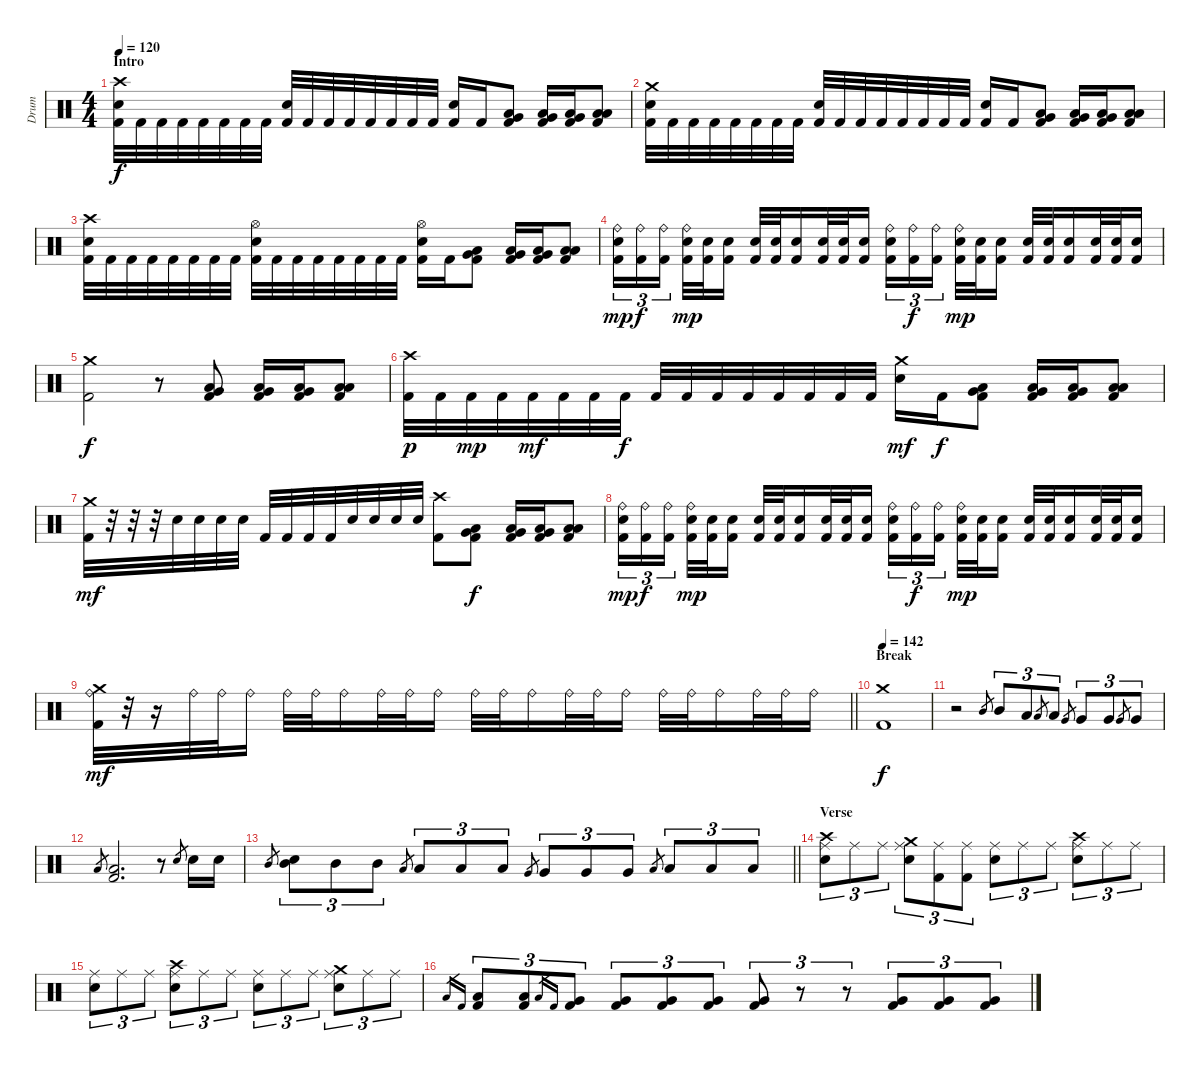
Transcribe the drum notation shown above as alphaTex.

\track ("Drum" "Drum") {instrument percussion}
\staff {score}
\articulation defaults
\ts (4 4)
\section ("" "Intro")
\tempo 120
\clef neutral
\ks c
("Crash high (hit)" "Electric Snare (hit)" "Kick (hit) 2").32{dy f} "Kick (hit) 2".32 "Kick (hit) 2".32 "Kick (hit) 2".32 "Kick (hit) 2".32 "Kick (hit) 2".32 "Kick (hit) 2".32 "Kick (hit) 2".32 ("Electric Snare (hit)" "Kick (hit) 2").32 "Kick (hit) 2".32 "Kick (hit) 2".32 "Kick (hit) 2".32 "Kick (hit) 2".32 "Kick (hit) 2".32 "Kick (hit) 2".32 "Kick (hit) 2".32 ("Electric Snare (hit)" "Kick (hit) 2").16 "Kick (hit) 2".16 ("Very Low Tom (hit)" "Low Floor Tom (hit)" "Kick (hit) 2").8 ("Very Low Tom (hit)" "Low Floor Tom (hit)" "Kick (hit) 2").16 ("Very Low Tom (hit)" "Low Floor Tom (hit)" "Kick (hit) 2").16 ("Low Tom (hit)" "Low Floor Tom (hit)" "Kick (hit) 2").8 |
("Crash medium (hit)" "Electric Snare (hit)" "Kick (hit) 2").32 "Kick (hit) 2".32 "Kick (hit) 2".32 "Kick (hit) 2".32 "Kick (hit) 2".32 "Kick (hit) 2".32 "Kick (hit) 2".32 "Kick (hit) 2".32 ("Electric Snare (hit)" "Kick (hit) 2").32 "Kick (hit) 2".32 "Kick (hit) 2".32 "Kick (hit) 2".32 "Kick (hit) 2".32 "Kick (hit) 2".32 "Kick (hit) 2".32 "Kick (hit) 2".32 ("Electric Snare (hit)" "Kick (hit) 2").16 "Kick (hit) 2".16 ("Very Low Tom (hit)" "Low Floor Tom (hit)" "Kick (hit) 2").8 ("Very Low Tom (hit)" "Low Floor Tom (hit)" "Kick (hit) 2").16 ("Very Low Tom (hit)" "Low Floor Tom (hit)" "Kick (hit) 2").16 ("Low Tom (hit)" "Low Floor Tom (hit)" "Kick (hit) 2").8 |
("Crash high (hit)" "Electric Snare (hit)" "Kick (hit) 2").32 "Kick (hit) 2".32 "Kick (hit) 2".32 "Kick (hit) 2".32 "Kick (hit) 2".32 "Kick (hit) 2".32 "Kick (hit) 2".32 "Kick (hit) 2".32 ("Hi-Hat (open)" "Electric Snare (hit)" "Kick (hit) 2").32 "Kick (hit) 2".32 "Kick (hit) 2".32 "Kick (hit) 2".32 "Kick (hit) 2".32 "Kick (hit) 2".32 "Kick (hit) 2".32 "Kick (hit) 2".32 ("Hi-Hat (open)" "Electric Snare (hit)" "Kick (hit) 2").16 "Kick (hit) 2".16 ("Very Low Tom (hit)" "Low Floor Tom (hit)" "Kick (hit) 2").8 ("Very Low Tom (hit)" "Low Floor Tom (hit)" "Kick (hit) 2").16 ("Very Low Tom (hit)" "Low Floor Tom (hit)" "Kick (hit) 2").16 ("Low Tom (hit)" "Low Floor Tom (hit)" "Kick (hit) 2").8 |
("Ride (bell)" "Electric Snare (hit)" "Kick (hit) 2").16{tu (3 2) dy mp} ("Ride (bell)" "Kick (hit) 2").16{tu (3 2) dy f} ("Ride (bell)" "Kick (hit) 2").16{tu (3 2) beam splitsecondary} ("Ride (bell)" "Electric Snare (hit)" "Kick (hit) 2").32{dy mp} ("Electric Snare (hit)" "Kick (hit) 2").32 ("Electric Snare (hit)" "Kick (hit) 2").16 ("Electric Snare (hit)" "Kick (hit) 2").32 ("Electric Snare (hit)" "Kick (hit) 2").32 ("Electric Snare (hit)" "Kick (hit) 2").16 ("Electric Snare (hit)" "Kick (hit) 2").32 ("Electric Snare (hit)" "Kick (hit) 2").32 ("Electric Snare (hit)" "Kick (hit) 2").16 ("Ride (bell)" "Electric Snare (hit)" "Kick (hit) 2").16{tu (3 2)} ("Ride (bell)" "Kick (hit) 2").16{tu (3 2) dy f} ("Ride (bell)" "Kick (hit) 2").16{tu (3 2) beam splitsecondary} ("Ride (bell)" "Electric Snare (hit)" "Kick (hit) 2").32{dy mp} ("Electric Snare (hit)" "Kick (hit) 2").32 ("Electric Snare (hit)" "Kick (hit) 2").16 ("Electric Snare (hit)" "Kick (hit) 2").32 ("Electric Snare (hit)" "Kick (hit) 2").32 ("Electric Snare (hit)" "Kick (hit) 2").16 ("Electric Snare (hit)" "Kick (hit) 2").32 ("Electric Snare (hit)" "Kick (hit) 2").32 ("Electric Snare (hit)" "Kick (hit) 2").16 |
("Crash medium (hit)" "Kick (hit) 2").2{dy f} r.8 ("Very Low Tom (hit)" "Low Floor Tom (hit)" "Kick (hit) 2").8 ("Very Low Tom (hit)" "Low Floor Tom (hit)" "Kick (hit) 2").16 ("Very Low Tom (hit)" "Low Floor Tom (hit)" "Kick (hit) 2").16 ("Low Tom (hit)" "Low Floor Tom (hit)" "Kick (hit) 2").8 |
("Crash high (hit)" "Kick (hit) 2").32{dy p} "Kick (hit) 2".32 "Kick (hit) 2".32{dy mp} "Kick (hit) 2".32 "Kick (hit) 2".32{dy mf} "Kick (hit) 2".32 "Kick (hit) 2".32 "Kick (hit) 2".32{dy f} "Kick (hit) 2".32 "Kick (hit) 2".32 "Kick (hit) 2".32 "Kick (hit) 2".32 "Kick (hit) 2".32 "Kick (hit) 2".32 "Kick (hit) 2".32 "Kick (hit) 2".32 ("Crash medium (hit)" "Electric Snare (hit)").16{dy mf} "Kick (hit) 2".16{dy f} ("Very Low Tom (hit)" "Low Floor Tom (hit)" "Kick (hit) 2").8 ("Very Low Tom (hit)" "Low Floor Tom (hit)" "Kick (hit) 2").16 ("Very Low Tom (hit)" "Low Floor Tom (hit)" "Kick (hit) 2").16 ("Low Tom (hit)" "Low Floor Tom (hit)" "Kick (hit) 2").8 |
("Crash medium (hit)" "Kick (hit) 2").32{dy mf} r.32 r.32 r.32 "Electric Snare (hit)".32 "Electric Snare (hit)".32 "Electric Snare (hit)".32 "Electric Snare (hit)".32 "Kick (hit) 2".32 "Kick (hit) 2".32 "Kick (hit) 2".32 "Kick (hit) 2".32 "Electric Snare (hit)".32 "Electric Snare (hit)".32 "Electric Snare (hit)".32 "Electric Snare (hit)".32 ("Crash high (hit)" "Kick (hit) 2").8 ("Very Low Tom (hit)" "Low Floor Tom (hit)" "Kick (hit) 2").8{dy f} ("Very Low Tom (hit)" "Low Floor Tom (hit)" "Kick (hit) 2").16 ("Very Low Tom (hit)" "Low Floor Tom (hit)" "Kick (hit) 2").16 ("Low Tom (hit)" "Low Floor Tom (hit)" "Kick (hit) 2").8 |
("Ride (bell)" "Electric Snare (hit)" "Kick (hit) 2").16{tu (3 2) dy mp} ("Ride (bell)" "Kick (hit) 2").16{tu (3 2) dy f} ("Ride (bell)" "Kick (hit) 2").16{tu (3 2) beam splitsecondary} ("Ride (bell)" "Electric Snare (hit)" "Kick (hit) 2").32{dy mp} ("Electric Snare (hit)" "Kick (hit) 2").32 ("Electric Snare (hit)" "Kick (hit) 2").16 ("Electric Snare (hit)" "Kick (hit) 2").32 ("Electric Snare (hit)" "Kick (hit) 2").32 ("Electric Snare (hit)" "Kick (hit) 2").16 ("Electric Snare (hit)" "Kick (hit) 2").32 ("Electric Snare (hit)" "Kick (hit) 2").32 ("Electric Snare (hit)" "Kick (hit) 2").16 ("Ride (bell)" "Electric Snare (hit)" "Kick (hit) 2").16{tu (3 2)} ("Ride (bell)" "Kick (hit) 2").16{tu (3 2) dy f} ("Ride (bell)" "Kick (hit) 2").16{tu (3 2) beam splitsecondary} ("Ride (bell)" "Electric Snare (hit)" "Kick (hit) 2").32{dy mp} ("Electric Snare (hit)" "Kick (hit) 2").32 ("Electric Snare (hit)" "Kick (hit) 2").16 ("Electric Snare (hit)" "Kick (hit) 2").32 ("Electric Snare (hit)" "Kick (hit) 2").32 ("Electric Snare (hit)" "Kick (hit) 2").16 ("Electric Snare (hit)" "Kick (hit) 2").32 ("Electric Snare (hit)" "Kick (hit) 2").32 ("Electric Snare (hit)" "Kick (hit) 2").16 |
\barLineRight lightlight
("Crash medium (hit)" "Ride (bell)" "Kick (hit) 2").32{dy mf} r.32 r.16 "Ride (bell)".32 "Ride (bell)".32 "Ride (bell)".16 "Ride (bell)".32 "Ride (bell)".32 "Ride (bell)".16 "Ride (bell)".32 "Ride (bell)".32 "Ride (bell)".16 "Ride (bell)".32 "Ride (bell)".32 "Ride (bell)".16 "Ride (bell)".32 "Ride (bell)".32 "Ride (bell)".16 "Ride (bell)".32 "Ride (bell)".32 "Ride (bell)".16 "Ride (bell)".32 "Ride (bell)".32 "Ride (bell)".16 |
\section ("" "Break")
\tempo 142
("Crash medium (hit)" "Kick (hit) 2").1{dy f} |
r.2 "Mid Tom (hit)".8{gr} "Mid Tom (hit)".8{tu (3 2)} "Low Tom (hit)".8{tu (3 2)} "Low Tom (hit)".8{gr} "Low Tom (hit)".8{tu (3 2)} "Very Low Tom (hit)".8{gr} "Very Low Tom (hit)".8{tu (3 2)} "Very Low Tom (hit)".8{tu (3 2)} "Very Low Tom (hit)".8{gr} "Very Low Tom (hit)".8{tu (3 2)} |
"Low Floor Tom (hit)".8{gr} ("Low Floor Tom (hit)" "Kick (hit) 2").2{d} r.8 "Electric Snare (hit)".8{gr} "Electric Snare (hit)".16 "Electric Snare (hit)".16 |
\barLineRight lightlight "Mid Tom (hit)".8{gr}
("Mid Tom (hit)" "Electric Snare (hit)").8{tu (3 2)} "Mid Tom (hit)".8{tu (3 2)} "Mid Tom (hit)".8{tu (3 2)} "Low Tom (hit)".8{gr} "Low Tom (hit)".8{tu (3 2)} "Low Tom (hit)".8{tu (3 2)} "Low Tom (hit)".8{tu (3 2)} "Very Low Tom (hit)".8{gr} "Very Low Tom (hit)".8{tu (3 2)} "Very Low Tom (hit)".8{tu (3 2)} "Very Low Tom (hit)".8{tu (3 2)} "Low Floor Tom (hit)".8{gr} "Low Floor Tom (hit)".8{tu (3 2)} "Low Floor Tom (hit)".8{tu (3 2)} "Low Floor Tom (hit)".8{tu (3 2)} |
\section ("" "Verse")
("Crash high (hit)" "Ride (middle)" "Electric Snare (hit)").8{tu (3 2)} "Ride (middle)".8{tu (3 2)} "Ride (middle)".8{tu (3 2)} ("Crash medium (hit)" "Ride (middle)" "Electric Snare (hit)").8{tu (3 2)} ("Ride (middle)" "Kick (hit) 2").8{tu (3 2)} ("Ride (middle)" "Kick (hit) 2").8{tu (3 2)} ("Ride (middle)" "Electric Snare (hit)").8{tu (3 2)} "Ride (middle)".8{tu (3 2)} "Ride (middle)".8{tu (3 2)} ("Crash high (hit)" "Ride (middle)" "Electric Snare (hit)").8{tu (3 2)} "Ride (middle)".8{tu (3 2)} "Ride (middle)".8{tu (3 2)} |
("Ride (middle)" "Electric Snare (hit)").8{tu (3 2)} "Ride (middle)".8{tu (3 2)} "Ride (middle)".8{tu (3 2)} ("Crash high (hit)" "Ride (middle)" "Electric Snare (hit)").8{tu (3 2)} "Ride (middle)".8{tu (3 2)} "Ride (middle)".8{tu (3 2)} ("Ride (middle)" "Electric Snare (hit)").8{tu (3 2)} "Ride (middle)".8{tu (3 2)} "Ride (middle)".8{tu (3 2)} ("Crash medium (hit)" "Ride (middle)" "Electric Snare (hit)").8{tu (3 2)} "Ride (middle)".8{tu (3 2)} "Ride (middle)".8{tu (3 2)} |
"Low Tom (hit)".16{gr} "Kick (hit) 2".16{gr} ("Low Tom (hit)" "Kick (hit) 2").8{tu (3 2)} ("Low Tom (hit)" "Kick (hit) 2").8{tu (3 2)} "Low Floor Tom (hit)".16{gr} "Kick (hit) 2".16{gr} ("Very Low Tom (hit)" "Kick (hit) 2").8{tu (3 2)} ("Very Low Tom (hit)" "Kick (hit) 2").8{tu (3 2)} ("Very Low Tom (hit)" "Kick (hit) 2").8{tu (3 2)} ("Very Low Tom (hit)" "Kick (hit) 2").8{tu (3 2)} ("Very Low Tom (hit)" "Kick (hit) 2").8{tu (3 2)} r.8{tu (3 2)} r.8{tu (3 2)} ("Very Low Tom (hit)" "Kick (hit) 2").8{tu (3 2)} ("Very Low Tom (hit)" "Kick (hit) 2").8{tu (3 2)} ("Very Low Tom (hit)" "Kick (hit) 2").8{tu (3 2)}
